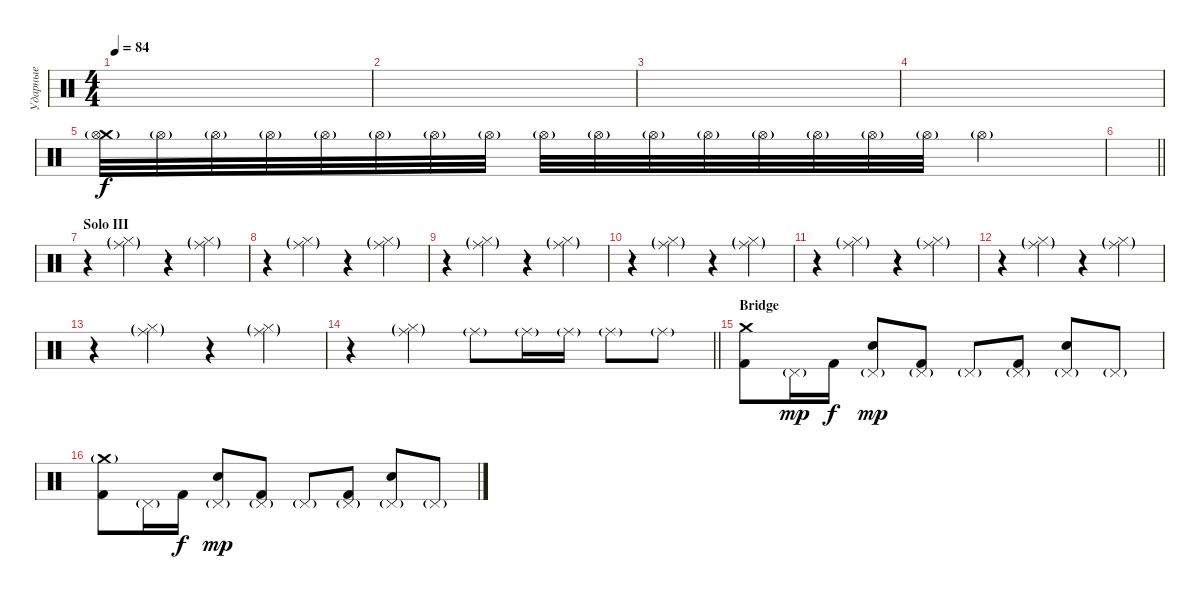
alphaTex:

\track ("Ударные" "Ударные") {instrument percussion}
\staff {score}
\articulation defaults
\ts (4 4)
\tempo 84
\clef neutral
\ks c
|
|
|
|
("Crash medium (hit)"{g} "Hi-Hat (open)"{g}).32{volume 16} "Hi-Hat (open)"{g}.32 "Hi-Hat (open)"{g}.32 "Hi-Hat (open)"{g}.32 "Hi-Hat (open)"{g}.32 "Hi-Hat (open)"{g}.32 "Hi-Hat (open)"{g}.32 "Hi-Hat (open)"{g}.32 "Hi-Hat (open)"{g}.32 "Hi-Hat (open)"{g}.32 "Hi-Hat (open)"{g}.32 "Hi-Hat (open)"{g}.32 "Hi-Hat (open)"{g}.32 "Hi-Hat (open)"{g}.32 "Hi-Hat (open)"{g}.32 "Hi-Hat (open)"{g}.32 "Hi-Hat (open)"{g}.2 |
\barLineRight lightlight
|
\section ("" "Solo III")
r.4 ("Ride (middle)"{g} "Hi-Hat (closed)"{g}).4 r.4 ("Ride (middle)"{g} "Hi-Hat (closed)"{g}).4 |
r.4 ("Ride (middle)"{g} "Hi-Hat (closed)"{g}).4 r.4 ("Ride (middle)"{g} "Hi-Hat (closed)"{g}).4 |
r.4 ("Ride (middle)"{g} "Hi-Hat (closed)"{g}).4 r.4 ("Ride (middle)"{g} "Hi-Hat (closed)"{g}).4 |
r.4 ("Ride (middle)"{g} "Hi-Hat (closed)"{g}).4 r.4 ("Ride (middle)"{g} "Hi-Hat (closed)"{g}).4 |
r.4 ("Ride (middle)"{g} "Hi-Hat (closed)"{g}).4 r.4 ("Ride (middle)"{g} "Hi-Hat (closed)"{g}).4 |
r.4 ("Ride (middle)"{g} "Hi-Hat (closed)"{g}).4 r.4 ("Ride (middle)"{g} "Hi-Hat (closed)"{g}).4 |
r.4 ("Ride (middle)"{g} "Hi-Hat (closed)"{g}).4 r.4 ("Ride (middle)"{g} "Hi-Hat (closed)"{g}).4 |
\barLineRight lightlight
r.4 ("Ride (middle)"{g} "Hi-Hat (closed)"{g}).4 "Ride (middle)"{g}.8 "Ride (middle)"{g}.16 "Ride (middle)"{g}.16 "Ride (middle)"{g}.8 "Ride (middle)"{g}.8 |
\section ("" "Bridge")
("Crash medium (hit)" "Kick (hit) 2").8{dy f} "Pedal Hi-Hat (hit)"{g}.16{dy mp} "Kick (hit) 2".16{dy f} ("Pedal Hi-Hat (hit)"{g} "Electric Snare (hit)").8{dy mp} ("Pedal Hi-Hat (hit)"{g} "Kick (hit) 2").8 "Pedal Hi-Hat (hit)"{g}.8 ("Pedal Hi-Hat (hit)"{g} "Kick (hit) 2").8 ("Pedal Hi-Hat (hit)"{g} "Electric Snare (hit)").8 "Pedal Hi-Hat (hit)"{g}.8 |
("Crash medium (hit)"{g} "Kick (hit) 2").8 "Pedal Hi-Hat (hit)"{g}.16 "Kick (hit) 2".16{dy f} ("Pedal Hi-Hat (hit)"{g} "Electric Snare (hit)").8{dy mp} ("Pedal Hi-Hat (hit)"{g} "Kick (hit) 2").8 "Pedal Hi-Hat (hit)"{g}.8 ("Pedal Hi-Hat (hit)"{g} "Kick (hit) 2").8 ("Pedal Hi-Hat (hit)"{g} "Electric Snare (hit)").8 "Pedal Hi-Hat (hit)"{g}.8
